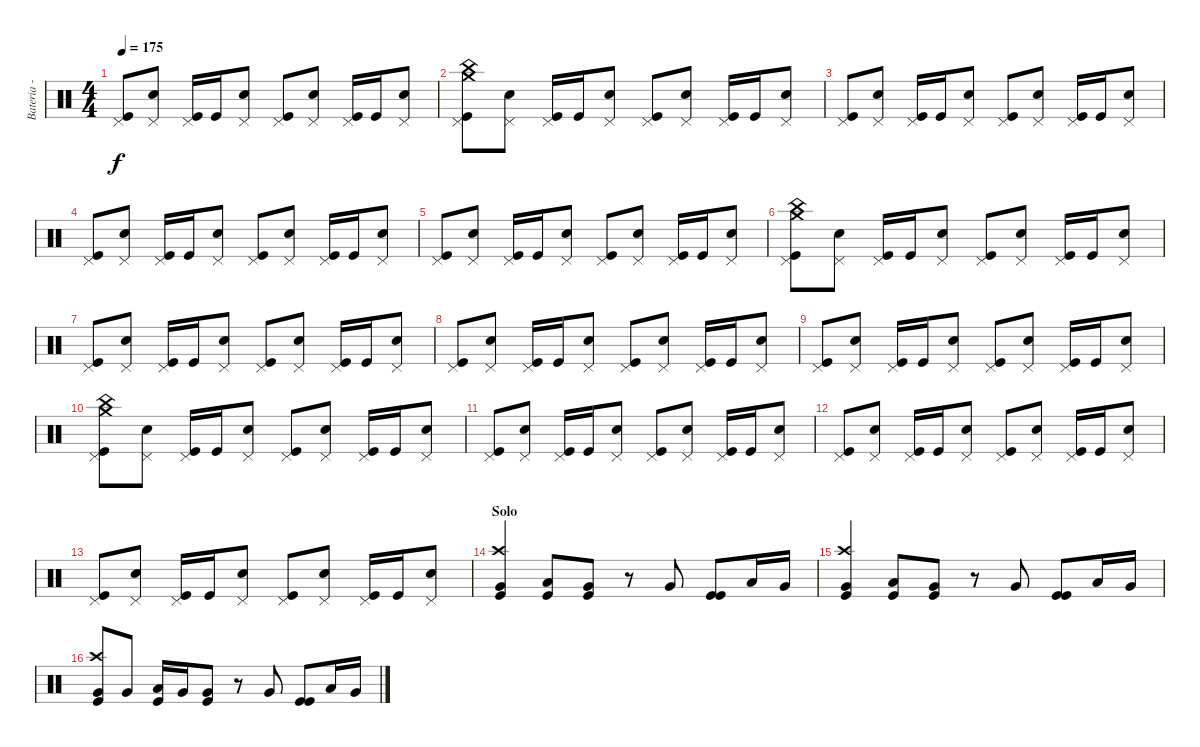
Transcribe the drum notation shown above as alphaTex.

\track ("Bateria - Larzon" "Bateria - ") {instrument percussion}
\staff {score}
\articulation defaults
\ts (4 4)
\tempo 175
\clef neutral
\ks c
("Pedal Hi-Hat (hit)" "Kick (hit)").8{dy f} ("Snare (hit) 2" "Pedal Hi-Hat (hit)").8 ("Kick (hit)" "Pedal Hi-Hat (hit)").16 "Kick (hit)".16 ("Snare (hit) 2" "Pedal Hi-Hat (hit)").8 ("Kick (hit)" "Pedal Hi-Hat (hit)").8 ("Snare (hit) 2" "Pedal Hi-Hat (hit)").8 ("Kick (hit)" "Pedal Hi-Hat (hit)").16 "Kick (hit)".16 ("Snare (hit) 2" "Pedal Hi-Hat (hit)").8 |
("Kick (hit)" "Pedal Hi-Hat (hit)" "Crash medium (hit)" "China (hit)").8 ("Snare (hit) 2" "Pedal Hi-Hat (hit)").8 ("Kick (hit)" "Pedal Hi-Hat (hit)").16 "Kick (hit)".16 ("Snare (hit) 2" "Pedal Hi-Hat (hit)").8 ("Pedal Hi-Hat (hit)" "Kick (hit)").8 ("Snare (hit) 2" "Pedal Hi-Hat (hit)").8 ("Kick (hit)" "Pedal Hi-Hat (hit)").16 "Kick (hit)".16 ("Snare (hit) 2" "Pedal Hi-Hat (hit)").8 |
("Pedal Hi-Hat (hit)" "Kick (hit)").8 ("Snare (hit) 2" "Pedal Hi-Hat (hit)").8 ("Kick (hit)" "Pedal Hi-Hat (hit)").16 "Kick (hit)".16 ("Snare (hit) 2" "Pedal Hi-Hat (hit)").8 ("Kick (hit)" "Pedal Hi-Hat (hit)").8 ("Snare (hit) 2" "Pedal Hi-Hat (hit)").8 ("Kick (hit)" "Pedal Hi-Hat (hit)").16 "Kick (hit)".16 ("Snare (hit) 2" "Pedal Hi-Hat (hit)").8 |
("Pedal Hi-Hat (hit)" "Kick (hit)").8 ("Snare (hit) 2" "Pedal Hi-Hat (hit)").8 ("Kick (hit)" "Pedal Hi-Hat (hit)").16 "Kick (hit)".16 ("Snare (hit) 2" "Pedal Hi-Hat (hit)").8 ("Kick (hit)" "Pedal Hi-Hat (hit)").8 ("Snare (hit) 2" "Pedal Hi-Hat (hit)").8 ("Kick (hit)" "Pedal Hi-Hat (hit)").16 "Kick (hit)".16 ("Snare (hit) 2" "Pedal Hi-Hat (hit)").8 |
("Pedal Hi-Hat (hit)" "Kick (hit)").8 ("Snare (hit) 2" "Pedal Hi-Hat (hit)").8 ("Kick (hit)" "Pedal Hi-Hat (hit)").16 "Kick (hit)".16 ("Snare (hit) 2" "Pedal Hi-Hat (hit)").8 ("Kick (hit)" "Pedal Hi-Hat (hit)").8 ("Snare (hit) 2" "Pedal Hi-Hat (hit)").8 ("Kick (hit)" "Pedal Hi-Hat (hit)").16 "Kick (hit)".16 ("Snare (hit) 2" "Pedal Hi-Hat (hit)").8 |
("Kick (hit)" "Pedal Hi-Hat (hit)" "Crash medium (hit)" "China (hit)").8 ("Snare (hit) 2" "Pedal Hi-Hat (hit)").8 ("Kick (hit)" "Pedal Hi-Hat (hit)").16 "Kick (hit)".16 ("Snare (hit) 2" "Pedal Hi-Hat (hit)").8 ("Pedal Hi-Hat (hit)" "Kick (hit)").8 ("Snare (hit) 2" "Pedal Hi-Hat (hit)").8 ("Kick (hit)" "Pedal Hi-Hat (hit)").16 "Kick (hit)".16 ("Snare (hit) 2" "Pedal Hi-Hat (hit)").8 |
("Pedal Hi-Hat (hit)" "Kick (hit)").8 ("Snare (hit) 2" "Pedal Hi-Hat (hit)").8 ("Kick (hit)" "Pedal Hi-Hat (hit)").16 "Kick (hit)".16 ("Snare (hit) 2" "Pedal Hi-Hat (hit)").8 ("Kick (hit)" "Pedal Hi-Hat (hit)").8 ("Snare (hit) 2" "Pedal Hi-Hat (hit)").8 ("Kick (hit)" "Pedal Hi-Hat (hit)").16 "Kick (hit)".16 ("Snare (hit) 2" "Pedal Hi-Hat (hit)").8 |
("Pedal Hi-Hat (hit)" "Kick (hit)").8 ("Snare (hit) 2" "Pedal Hi-Hat (hit)").8 ("Kick (hit)" "Pedal Hi-Hat (hit)").16 "Kick (hit)".16 ("Snare (hit) 2" "Pedal Hi-Hat (hit)").8 ("Kick (hit)" "Pedal Hi-Hat (hit)").8 ("Snare (hit) 2" "Pedal Hi-Hat (hit)").8 ("Kick (hit)" "Pedal Hi-Hat (hit)").16 "Kick (hit)".16 ("Snare (hit) 2" "Pedal Hi-Hat (hit)").8 |
("Pedal Hi-Hat (hit)" "Kick (hit)").8 ("Snare (hit) 2" "Pedal Hi-Hat (hit)").8 ("Kick (hit)" "Pedal Hi-Hat (hit)").16 "Kick (hit)".16 ("Snare (hit) 2" "Pedal Hi-Hat (hit)").8 ("Kick (hit)" "Pedal Hi-Hat (hit)").8 ("Snare (hit) 2" "Pedal Hi-Hat (hit)").8 ("Kick (hit)" "Pedal Hi-Hat (hit)").16 "Kick (hit)".16 ("Snare (hit) 2" "Pedal Hi-Hat (hit)").8 |
("Kick (hit)" "Pedal Hi-Hat (hit)" "Crash medium (hit)" "China (hit)").8 ("Snare (hit) 2" "Pedal Hi-Hat (hit)").8 ("Kick (hit)" "Pedal Hi-Hat (hit)").16 "Kick (hit)".16 ("Snare (hit) 2" "Pedal Hi-Hat (hit)").8 ("Pedal Hi-Hat (hit)" "Kick (hit)").8 ("Snare (hit) 2" "Pedal Hi-Hat (hit)").8 ("Kick (hit)" "Pedal Hi-Hat (hit)").16 "Kick (hit)".16 ("Snare (hit) 2" "Pedal Hi-Hat (hit)").8 |
("Pedal Hi-Hat (hit)" "Kick (hit)").8 ("Snare (hit) 2" "Pedal Hi-Hat (hit)").8 ("Kick (hit)" "Pedal Hi-Hat (hit)").16 "Kick (hit)".16 ("Snare (hit) 2" "Pedal Hi-Hat (hit)").8 ("Kick (hit)" "Pedal Hi-Hat (hit)").8 ("Snare (hit) 2" "Pedal Hi-Hat (hit)").8 ("Kick (hit)" "Pedal Hi-Hat (hit)").16 "Kick (hit)".16 ("Snare (hit) 2" "Pedal Hi-Hat (hit)").8 |
("Pedal Hi-Hat (hit)" "Kick (hit)").8 ("Snare (hit) 2" "Pedal Hi-Hat (hit)").8 ("Kick (hit)" "Pedal Hi-Hat (hit)").16 "Kick (hit)".16 ("Snare (hit) 2" "Pedal Hi-Hat (hit)").8 ("Kick (hit)" "Pedal Hi-Hat (hit)").8 ("Snare (hit) 2" "Pedal Hi-Hat (hit)").8 ("Kick (hit)" "Pedal Hi-Hat (hit)").16 "Kick (hit)".16 ("Snare (hit) 2" "Pedal Hi-Hat (hit)").8 |
("Pedal Hi-Hat (hit)" "Kick (hit)").8 ("Snare (hit) 2" "Pedal Hi-Hat (hit)").8 ("Kick (hit)" "Pedal Hi-Hat (hit)").16 "Kick (hit)".16 ("Snare (hit) 2" "Pedal Hi-Hat (hit)").8 ("Kick (hit)" "Pedal Hi-Hat (hit)").8 ("Snare (hit) 2" "Pedal Hi-Hat (hit)").8 ("Kick (hit)" "Pedal Hi-Hat (hit)").16 "Kick (hit)".16 ("Snare (hit) 2" "Pedal Hi-Hat (hit)").8 |
\section ("" "Solo")
("Kick (hit)" "Crash high (hit)" "Very Low Tom (hit)").4 ("Kick (hit)" "Low Tom (hit)").8 ("Kick (hit)" "Very Low Tom (hit)").8 r.8 "Very Low Tom (hit)".8 ("Kick (hit)" "Kick (hit)").8 "Low Tom (hit)".16 "Very Low Tom (hit)".16 |
("Kick (hit)" "Crash high (hit)" "Very Low Tom (hit)").4 ("Kick (hit)" "Low Tom (hit)").8 ("Kick (hit)" "Very Low Tom (hit)").8 r.8 "Very Low Tom (hit)".8 ("Kick (hit)" "Kick (hit)").8 "Low Tom (hit)".16 "Very Low Tom (hit)".16 |
("Very Low Tom (hit)" "Crash high (hit)" "Kick (hit)").8 "Very Low Tom (hit)".8 ("Kick (hit)" "Low Tom (hit)").16 "Very Low Tom (hit)".16 ("Kick (hit)" "Very Low Tom (hit)").8 r.8 "Very Low Tom (hit)".8 ("Kick (hit)" "Kick (hit)").8 "Low Tom (hit)".16 "Very Low Tom (hit)".16
